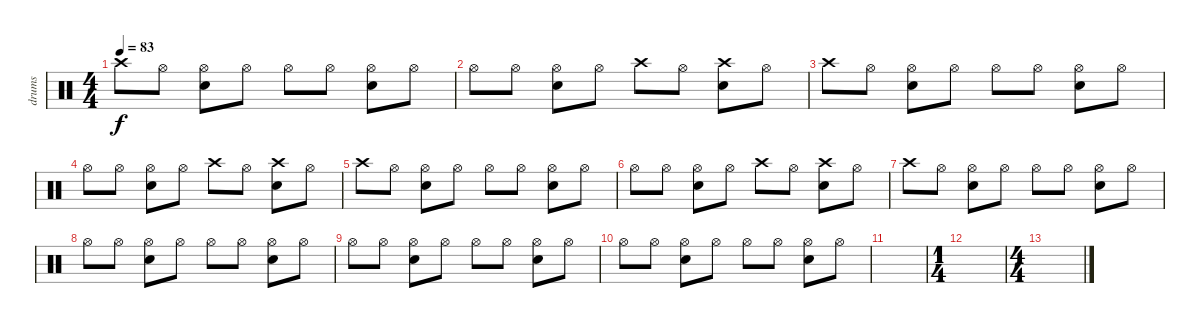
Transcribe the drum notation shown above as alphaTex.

\track ("drums" "drums") {instrument percussion}
\staff {score}
\articulation defaults
\ts (4 4)
\tempo 83
\clef neutral
\ks c "Crash high (hit)".8{dy f} "Hi-Hat (open)".8
("Snare (hit) 2" "Hi-Hat (open)").8 "Hi-Hat (open)".8 "Hi-Hat (open)".8 "Hi-Hat (open)".8 ("Snare (hit) 2" "Hi-Hat (open)").8 "Hi-Hat (open)".8 |
"Hi-Hat (open)".8 "Hi-Hat (open)".8 ("Snare (hit) 2" "Hi-Hat (open)").8 "Hi-Hat (open)".8 "Crash high (hit)".8 "Hi-Hat (open)".8 ("Crash high (hit)" "Snare (hit) 2").8 "Hi-Hat (open)".8 |
"Crash high (hit)".8 "Hi-Hat (open)".8 ("Snare (hit) 2" "Hi-Hat (open)").8 "Hi-Hat (open)".8 "Hi-Hat (open)".8 "Hi-Hat (open)".8 ("Snare (hit) 2" "Hi-Hat (open)").8 "Hi-Hat (open)".8 |
"Hi-Hat (open)".8 "Hi-Hat (open)".8 ("Snare (hit) 2" "Hi-Hat (open)").8 "Hi-Hat (open)".8 "Crash high (hit)".8 "Hi-Hat (open)".8 ("Crash high (hit)" "Snare (hit) 2").8 "Hi-Hat (open)".8 |
"Crash high (hit)".8 "Hi-Hat (open)".8 ("Snare (hit) 2" "Hi-Hat (open)").8 "Hi-Hat (open)".8 "Hi-Hat (open)".8 "Hi-Hat (open)".8 ("Snare (hit) 2" "Hi-Hat (open)").8 "Hi-Hat (open)".8 |
"Hi-Hat (open)".8 "Hi-Hat (open)".8 ("Snare (hit) 2" "Hi-Hat (open)").8 "Hi-Hat (open)".8 "Crash high (hit)".8 "Hi-Hat (open)".8 ("Crash high (hit)" "Snare (hit) 2").8 "Hi-Hat (open)".8 |
"Crash high (hit)".8 "Hi-Hat (open)".8 ("Snare (hit) 2" "Hi-Hat (open)").8 "Hi-Hat (open)".8 "Hi-Hat (open)".8 "Hi-Hat (open)".8 ("Snare (hit) 2" "Hi-Hat (open)").8 "Hi-Hat (open)".8 |
"Hi-Hat (open)".8 "Hi-Hat (open)".8 ("Snare (hit) 2" "Hi-Hat (open)").8 "Hi-Hat (open)".8 "Hi-Hat (open)".8 "Hi-Hat (open)".8 ("Snare (hit) 2" "Hi-Hat (open)").8 "Hi-Hat (open)".8 |
"Hi-Hat (open)".8 "Hi-Hat (open)".8 ("Snare (hit) 2" "Hi-Hat (open)").8 "Hi-Hat (open)".8 "Hi-Hat (open)".8 "Hi-Hat (open)".8 ("Snare (hit) 2" "Hi-Hat (open)").8 "Hi-Hat (open)".8 |
"Hi-Hat (open)".8 "Hi-Hat (open)".8 ("Snare (hit) 2" "Hi-Hat (open)").8 "Hi-Hat (open)".8 "Hi-Hat (open)".8 "Hi-Hat (open)".8 ("Snare (hit) 2" "Hi-Hat (open)").8 "Hi-Hat (open)".8 |
|
\ts (1 4)
|
\ts (4 4)
